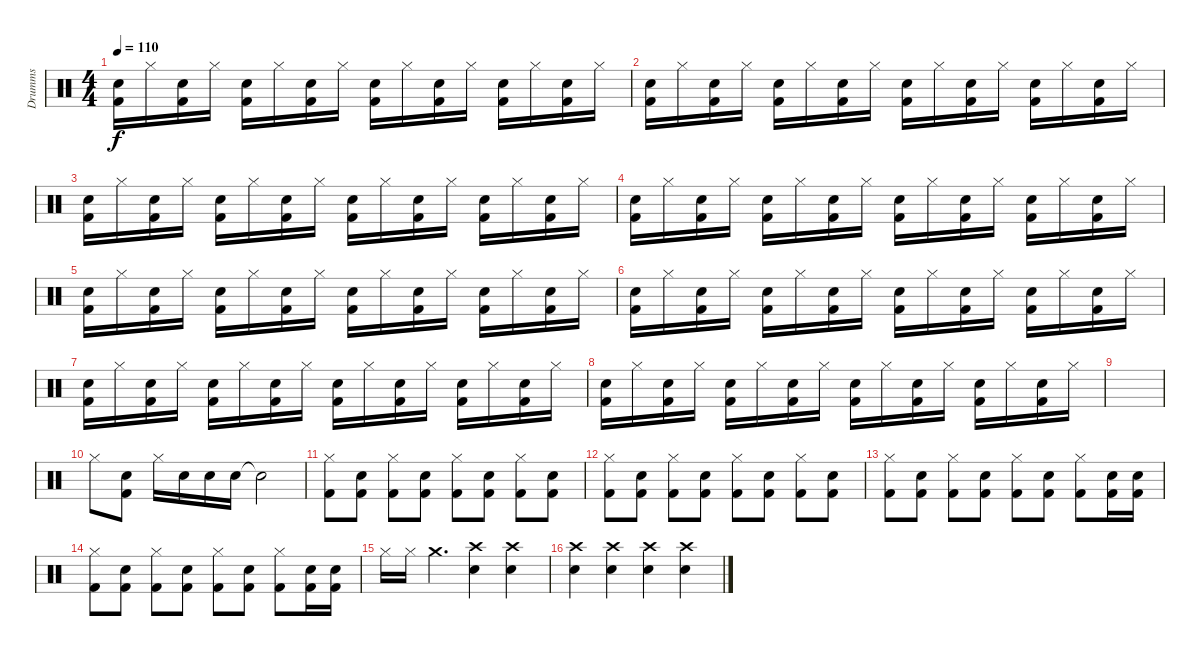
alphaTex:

\track ("Drumms" "Drumms") {instrument percussion}
\staff {score}
\articulation defaults
\ts (4 4)
\tempo 110
\clef neutral
\ks c
("Kick (hit) 2" "Snare (hit) 2").16{dy f} "Hi-Hat (closed)".16 ("Kick (hit) 2" "Snare (hit) 2").16 "Hi-Hat (closed)".16 ("Kick (hit) 2" "Snare (hit) 2").16 "Hi-Hat (closed)".16 ("Kick (hit) 2" "Snare (hit) 2").16 "Hi-Hat (closed)".16 ("Kick (hit) 2" "Snare (hit) 2").16 "Hi-Hat (closed)".16 ("Kick (hit) 2" "Snare (hit) 2").16 "Hi-Hat (closed)".16 ("Kick (hit) 2" "Snare (hit) 2").16 "Hi-Hat (closed)".16 ("Kick (hit) 2" "Snare (hit) 2").16 "Hi-Hat (closed)".16 |
("Kick (hit) 2" "Snare (hit) 2").16 "Hi-Hat (closed)".16 ("Kick (hit) 2" "Snare (hit) 2").16 "Hi-Hat (closed)".16 ("Kick (hit) 2" "Snare (hit) 2").16 "Hi-Hat (closed)".16 ("Kick (hit) 2" "Snare (hit) 2").16 "Hi-Hat (closed)".16 ("Kick (hit) 2" "Snare (hit) 2").16 "Hi-Hat (closed)".16 ("Kick (hit) 2" "Snare (hit) 2").16 "Hi-Hat (closed)".16 ("Kick (hit) 2" "Snare (hit) 2").16 "Hi-Hat (closed)".16 ("Kick (hit) 2" "Snare (hit) 2").16 "Hi-Hat (closed)".16 |
("Kick (hit) 2" "Snare (hit) 2").16 "Hi-Hat (closed)".16 ("Kick (hit) 2" "Snare (hit) 2").16 "Hi-Hat (closed)".16 ("Kick (hit) 2" "Snare (hit) 2").16 "Hi-Hat (closed)".16 ("Kick (hit) 2" "Snare (hit) 2").16 "Hi-Hat (closed)".16 ("Kick (hit) 2" "Snare (hit) 2").16 "Hi-Hat (closed)".16 ("Kick (hit) 2" "Snare (hit) 2").16 "Hi-Hat (closed)".16 ("Kick (hit) 2" "Snare (hit) 2").16 "Hi-Hat (closed)".16 ("Kick (hit) 2" "Snare (hit) 2").16 "Hi-Hat (closed)".16 |
("Kick (hit) 2" "Snare (hit) 2").16 "Hi-Hat (closed)".16 ("Kick (hit) 2" "Snare (hit) 2").16 "Hi-Hat (closed)".16 ("Kick (hit) 2" "Snare (hit) 2").16 "Hi-Hat (closed)".16 ("Kick (hit) 2" "Snare (hit) 2").16 "Hi-Hat (closed)".16 ("Kick (hit) 2" "Snare (hit) 2").16 "Hi-Hat (closed)".16 ("Kick (hit) 2" "Snare (hit) 2").16 "Hi-Hat (closed)".16 ("Kick (hit) 2" "Snare (hit) 2").16 "Hi-Hat (closed)".16 ("Kick (hit) 2" "Snare (hit) 2").16 "Hi-Hat (closed)".16 |
("Kick (hit) 2" "Snare (hit) 2").16 "Hi-Hat (closed)".16 ("Kick (hit) 2" "Snare (hit) 2").16 "Hi-Hat (closed)".16 ("Kick (hit) 2" "Snare (hit) 2").16 "Hi-Hat (closed)".16 ("Kick (hit) 2" "Snare (hit) 2").16 "Hi-Hat (closed)".16 ("Kick (hit) 2" "Snare (hit) 2").16 "Hi-Hat (closed)".16 ("Kick (hit) 2" "Snare (hit) 2").16 "Hi-Hat (closed)".16 ("Kick (hit) 2" "Snare (hit) 2").16 "Hi-Hat (closed)".16 ("Kick (hit) 2" "Snare (hit) 2").16 "Hi-Hat (closed)".16 |
("Kick (hit) 2" "Snare (hit) 2").16 "Hi-Hat (closed)".16 ("Kick (hit) 2" "Snare (hit) 2").16 "Hi-Hat (closed)".16 ("Kick (hit) 2" "Snare (hit) 2").16 "Hi-Hat (closed)".16 ("Kick (hit) 2" "Snare (hit) 2").16 "Hi-Hat (closed)".16 ("Kick (hit) 2" "Snare (hit) 2").16 "Hi-Hat (closed)".16 ("Kick (hit) 2" "Snare (hit) 2").16 "Hi-Hat (closed)".16 ("Kick (hit) 2" "Snare (hit) 2").16 "Hi-Hat (closed)".16 ("Kick (hit) 2" "Snare (hit) 2").16 "Hi-Hat (closed)".16 |
("Kick (hit) 2" "Snare (hit) 2").16 "Hi-Hat (closed)".16 ("Kick (hit) 2" "Snare (hit) 2").16 "Hi-Hat (closed)".16 ("Kick (hit) 2" "Snare (hit) 2").16 "Hi-Hat (closed)".16 ("Kick (hit) 2" "Snare (hit) 2").16 "Hi-Hat (closed)".16 ("Kick (hit) 2" "Snare (hit) 2").16 "Hi-Hat (closed)".16 ("Kick (hit) 2" "Snare (hit) 2").16 "Hi-Hat (closed)".16 ("Kick (hit) 2" "Snare (hit) 2").16 "Hi-Hat (closed)".16 ("Kick (hit) 2" "Snare (hit) 2").16 "Hi-Hat (closed)".16 |
("Kick (hit) 2" "Snare (hit) 2").16 "Hi-Hat (closed)".16 ("Kick (hit) 2" "Snare (hit) 2").16 "Hi-Hat (closed)".16 ("Kick (hit) 2" "Snare (hit) 2").16 "Hi-Hat (closed)".16 ("Kick (hit) 2" "Snare (hit) 2").16 "Hi-Hat (closed)".16 ("Kick (hit) 2" "Snare (hit) 2").16 "Hi-Hat (closed)".16 ("Kick (hit) 2" "Snare (hit) 2").16 "Hi-Hat (closed)".16 ("Kick (hit) 2" "Snare (hit) 2").16 "Hi-Hat (closed)".16 ("Kick (hit) 2" "Snare (hit) 2").16 "Hi-Hat (closed)".16 |
|
"Hi-Hat (closed)".8 ("Kick (hit) 2" "Snare (hit) 2").8 "Hi-Hat (closed)".16 "Snare (hit) 2".16 "Snare (hit) 2".16 "Snare (hit) 2".16 "Snare (hit)"{t}.2 |
("Kick (hit) 2" "Hi-Hat (closed)").8 ("Kick (hit) 2" "Snare (hit) 2").8 ("Kick (hit) 2" "Hi-Hat (closed)").8 ("Kick (hit) 2" "Snare (hit) 2").8 ("Kick (hit) 2" "Hi-Hat (closed)").8 ("Kick (hit) 2" "Snare (hit) 2").8 ("Kick (hit) 2" "Hi-Hat (closed)").8 ("Kick (hit) 2" "Snare (hit) 2").8 |
("Kick (hit) 2" "Hi-Hat (closed)").8 ("Kick (hit) 2" "Snare (hit) 2").8 ("Kick (hit) 2" "Hi-Hat (closed)").8 ("Kick (hit) 2" "Snare (hit) 2").8 ("Kick (hit) 2" "Hi-Hat (closed)").8 ("Kick (hit) 2" "Snare (hit) 2").8 ("Kick (hit) 2" "Hi-Hat (closed)").8 ("Kick (hit) 2" "Snare (hit) 2").8 |
("Kick (hit) 2" "Hi-Hat (closed)").8 ("Kick (hit) 2" "Snare (hit) 2").8 ("Kick (hit) 2" "Hi-Hat (closed)").8 ("Kick (hit) 2" "Snare (hit) 2").8 ("Kick (hit) 2" "Hi-Hat (closed)").8 ("Kick (hit) 2" "Snare (hit) 2").8 ("Kick (hit) 2" "Hi-Hat (closed)").8 ("Kick (hit) 2" "Snare (hit) 2").16 ("Kick (hit) 2" "Snare (hit) 2").16 |
("Kick (hit) 2" "Hi-Hat (closed)").8 ("Kick (hit) 2" "Snare (hit) 2").8 ("Kick (hit) 2" "Hi-Hat (closed)").8 ("Kick (hit) 2" "Snare (hit) 2").8 ("Kick (hit) 2" "Hi-Hat (closed)").8 ("Kick (hit) 2" "Snare (hit) 2").8 ("Kick (hit) 2" "Hi-Hat (closed)").8 ("Kick (hit) 2" "Snare (hit) 2").16 ("Kick (hit) 2" "Snare (hit) 2").16 |
"Hi-Hat (closed)".16 "Hi-Hat (closed)".16 "Crash medium (hit)".4{d} ("Snare (hit) 2" "Crash high (hit)").4 ("Snare (hit) 2" "Crash high (hit)").4 |
("Snare (hit) 2" "Crash high (hit)").4 ("Snare (hit) 2" "Crash high (hit)").4 ("Snare (hit) 2" "Crash high (hit)").4 ("Snare (hit) 2" "Crash high (hit)").4
